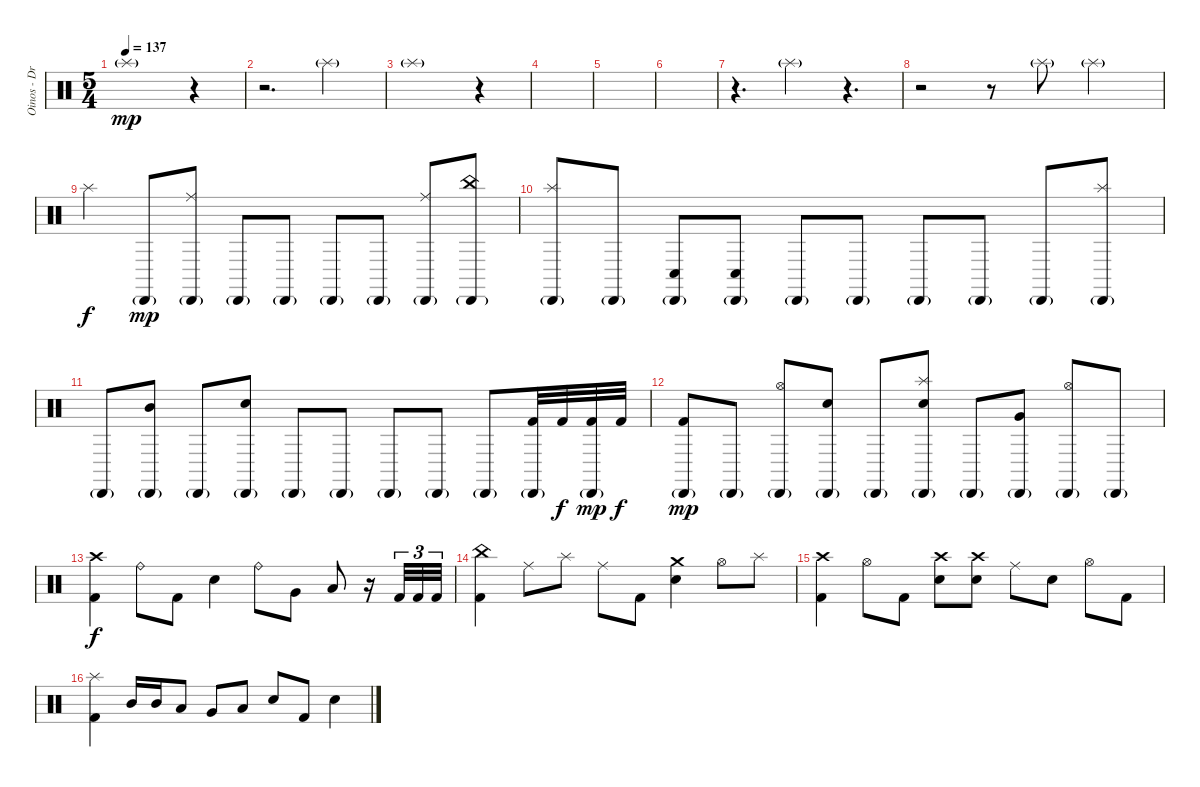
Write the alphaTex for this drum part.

\track ("Oinos - Drums" "Oinos - Dr") {instrument percussion}
\staff {score}
\articulation defaults
\ts (5 4)
\tempo 137
\clef neutral
\ks c "Splash (hit)"{g}.1{dy mp}
r.4 |
r.2{d} "Splash (hit)"{g}.2 |
"Splash (hit)"{g}.1 r.4 |
|
|
|
r.4{d} "Splash (hit)"{g}.2 r.4{d} |
r.2 r.8 "Splash (hit)"{g}.8 "Splash (hit)"{g}.2 |
"Splash (hit)".4{dy f} "Cabasa (hit)"{g}.8{dy mp} ("Ride (middle)" "Cabasa (hit)"{g}).8 "Cabasa (hit)"{g}.8 "Cabasa (hit)"{g}.8 "Cabasa (hit)"{g}.8 "Cabasa (hit)"{g}.8 ("Ride (middle)" "Cabasa (hit)"{g}).8 ("China (hit)" "Cabasa (hit)"{g}).8 |
("Splash (hit)" "Cabasa (hit)"{g}).8 "Cabasa (hit)"{g}.8 ("Conga low (hit)" "Cabasa (hit)"{g}).8 ("Conga low (hit)" "Cabasa (hit)"{g}).8 "Cabasa (hit)"{g}.8 "Cabasa (hit)"{g}.8 "Cabasa (hit)"{g}.8 "Cabasa (hit)"{g}.8 "Cabasa (hit)"{g}.8 ("Splash (hit)" "Cabasa (hit)"{g}).8 |
"Cabasa (hit)"{g}.8 ("Cabasa (hit)"{g} "Mid Tom (hit)").8 "Cabasa (hit)"{g}.8 ("Cabasa (hit)"{g} "Electric Snare (hit)").8 "Cabasa (hit)"{g}.8 "Cabasa (hit)"{g}.8 "Cabasa (hit)"{g}.8 "Cabasa (hit)"{g}.8 "Cabasa (hit)"{g}.8 ("Cabasa (hit)"{g} "Kick (hit) 2").32 "Kick (hit) 2".32{dy f} ("Cabasa (hit)"{g} "Kick (hit) 2").32{dy mp} "Kick (hit) 2".32{dy f} |
("Cabasa (hit)"{g} "Kick (hit) 2").8{dy mp} "Cabasa (hit)"{g}.8 ("Hi-Hat (open)" "Cabasa (hit)"{g}).8 ("Cabasa (hit)"{g} "Electric Snare (hit)").8 "Cabasa (hit)"{g}.8 ("Splash (hit)" "Cabasa (hit)"{g} "Electric Snare (hit)").8 "Cabasa (hit)"{g}.8 ("Cabasa (hit)"{g} "Very Low Tom (hit)").8 ("Hi-Hat (open)" "Cabasa (hit)"{g}).8 "Cabasa (hit)"{g}.8 |
("Crash high (hit)" "Kick (hit) 2").4{dy f} "Ride (bell)".8 "Kick (hit) 2".8 "Electric Snare (hit)".4 "Ride (bell)".8 "Very Low Tom (hit)".8 "Low Floor Tom (hit)".8 r.16 "Kick (hit) 2".32{tu (3 2)} "Kick (hit) 2".32{tu (3 2)} "Kick (hit) 2".32{tu (3 2)} |
("China (hit)" "Kick (hit) 2").4 "Ride (middle)".8 "Splash (hit)".8 "Ride (middle)".8 "Kick (hit) 2".8 ("Crash medium (hit)" "Electric Snare (hit)").4 "Hi-Hat (open)".8 "Splash (hit)".8 |
("Crash high (hit)" "Kick (hit) 2").4 "Hi-Hat (open)".8 "Kick (hit) 2".8 ("Crash high (hit)" "Electric Snare (hit)").8 ("Crash high (hit)" "Electric Snare (hit)").8 "Ride (middle)".8 "Electric Snare (hit)".8 "Hi-Hat (open)".8 "Kick (hit) 2".8 |
("Splash (hit)" "Kick (hit) 2").4 "Mid Tom (hit)".16 "Mid Tom (hit)".16 "Low Tom (hit)".8 "Very Low Tom (hit)".8 "Low Floor Tom (hit)".8 "Electric Snare (hit)".8 "Kick (hit) 2".8 "Electric Snare (hit)".4
